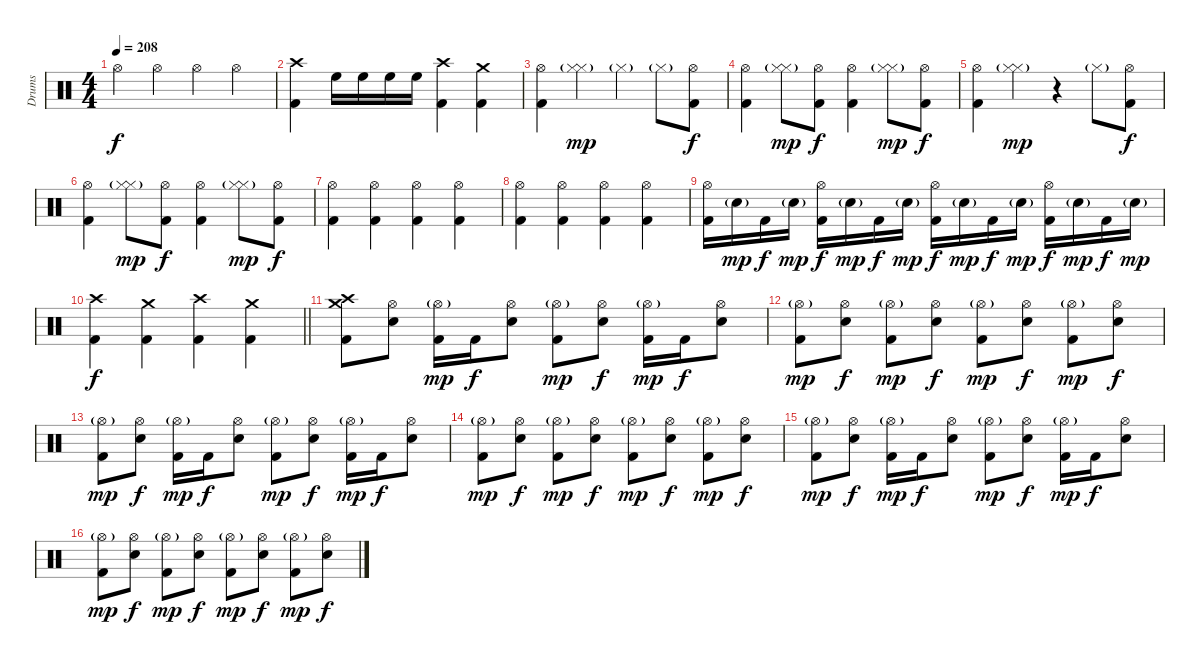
\track ("Drums" "Drums") {instrument percussion}
\staff {score}
\articulation defaults
\ts (4 4)
\tempo 208
\clef neutral
\ks c "Hi-Hat (open)".4{dy f} "Hi-Hat (open)".4 "Hi-Hat (open)".4 "Hi-Hat (open)".4
|
("Crash high (hit)" "Kick (hit) 2").4 "High Floor Tom (hit)".16 "High Floor Tom (hit)".16 "High Floor Tom (hit)".16 "High Floor Tom (hit)".16 ("Crash high (hit)" "Kick (hit) 2").4 ("Crash medium (hit)" "Kick (hit) 2").4 |
("Hi-Hat (open)" "Kick (hit) 2").4 ("Hi-Hat (closed)" "Hi-Hat (closed)"{g}).4{dy mp} "Hi-Hat (closed)"{g}.4 "Hi-Hat (closed)"{g}.8 ("Hi-Hat (open)" "Kick (hit) 2").8{dy f} |
("Hi-Hat (open)" "Kick (hit) 2").4 ("Hi-Hat (closed)" "Hi-Hat (closed)"{g}).8{dy mp} ("Hi-Hat (open)" "Kick (hit) 2").8{dy f} ("Hi-Hat (open)" "Kick (hit) 2").4 ("Hi-Hat (closed)" "Hi-Hat (closed)"{g}).8{dy mp} ("Hi-Hat (open)" "Kick (hit) 2").8{dy f} |
("Hi-Hat (open)" "Kick (hit) 2").4 ("Hi-Hat (closed)" "Hi-Hat (closed)"{g}).4{dy mp} r.4 "Hi-Hat (closed)"{g}.8 ("Hi-Hat (open)" "Kick (hit) 2").8{dy f} |
("Hi-Hat (open)" "Kick (hit) 2").4 ("Hi-Hat (closed)" "Hi-Hat (closed)"{g}).8{dy mp} ("Hi-Hat (open)" "Kick (hit) 2").8{dy f} ("Hi-Hat (open)" "Kick (hit) 2").4 ("Hi-Hat (closed)" "Hi-Hat (closed)"{g}).8{dy mp} ("Hi-Hat (open)" "Kick (hit) 2").8{dy f} |
("Hi-Hat (open)" "Kick (hit) 2").4 ("Hi-Hat (open)" "Kick (hit) 2").4 ("Hi-Hat (open)" "Kick (hit) 2").4 ("Hi-Hat (open)" "Kick (hit) 2").4 |
("Hi-Hat (open)" "Kick (hit) 2").4 ("Hi-Hat (open)" "Kick (hit) 2").4 ("Hi-Hat (open)" "Kick (hit) 2").4 ("Hi-Hat (open)" "Kick (hit) 2").4 |
("Hi-Hat (open)" "Kick (hit) 2").16 "Electric Snare (hit)"{g}.16{dy mp} "Kick (hit) 2".16{dy f} "Electric Snare (hit)"{g}.16{dy mp} ("Hi-Hat (open)" "Kick (hit) 2").16{dy f} "Electric Snare (hit)"{g}.16{dy mp} "Kick (hit) 2".16{dy f} "Electric Snare (hit)"{g}.16{dy mp} ("Hi-Hat (open)" "Kick (hit) 2").16{dy f} "Electric Snare (hit)"{g}.16{dy mp} "Kick (hit) 2".16{dy f} "Electric Snare (hit)"{g}.16{dy mp} ("Hi-Hat (open)" "Kick (hit) 2").16{dy f} "Electric Snare (hit)"{g}.16{dy mp} "Kick (hit) 2".16{dy f} "Electric Snare (hit)"{g}.16{dy mp} |
\barLineRight lightlight
("Crash high (hit)" "Kick (hit) 2").4{dy f} ("Crash medium (hit)" "Kick (hit) 2").4 ("Crash high (hit)" "Kick (hit) 2").4 ("Crash medium (hit)" "Kick (hit) 2").4 |
("Crash high (hit)" "Crash medium (hit)" "Kick (hit) 2").8 ("Hi-Hat (open)" "Electric Snare (hit)").8 ("Hi-Hat (open)"{g} "Kick (hit) 2").16{dy mp} "Kick (hit) 2".16{dy f} ("Hi-Hat (open)" "Electric Snare (hit)").8 ("Hi-Hat (open)"{g} "Kick (hit) 2").8{dy mp} ("Hi-Hat (open)" "Electric Snare (hit)").8{dy f} ("Hi-Hat (open)"{g} "Kick (hit) 2").16{dy mp} "Kick (hit) 2".16{dy f} ("Hi-Hat (open)" "Electric Snare (hit)").8 |
("Hi-Hat (open)"{g} "Kick (hit) 2").8{dy mp} ("Hi-Hat (open)" "Electric Snare (hit)").8{dy f} ("Hi-Hat (open)"{g} "Kick (hit) 2").8{dy mp} ("Hi-Hat (open)" "Electric Snare (hit)").8{dy f} ("Hi-Hat (open)"{g} "Kick (hit) 2").8{dy mp} ("Hi-Hat (open)" "Electric Snare (hit)").8{dy f} ("Hi-Hat (open)"{g} "Kick (hit) 2").8{dy mp} ("Hi-Hat (open)" "Electric Snare (hit)").8{dy f} |
("Hi-Hat (open)"{g} "Kick (hit) 2").8{dy mp} ("Hi-Hat (open)" "Electric Snare (hit)").8{dy f} ("Hi-Hat (open)"{g} "Kick (hit) 2").16{dy mp} "Kick (hit) 2".16{dy f} ("Hi-Hat (open)" "Electric Snare (hit)").8 ("Hi-Hat (open)"{g} "Kick (hit) 2").8{dy mp} ("Hi-Hat (open)" "Electric Snare (hit)").8{dy f} ("Hi-Hat (open)"{g} "Kick (hit) 2").16{dy mp} "Kick (hit) 2".16{dy f} ("Hi-Hat (open)" "Electric Snare (hit)").8 |
("Hi-Hat (open)"{g} "Kick (hit) 2").8{dy mp} ("Hi-Hat (open)" "Electric Snare (hit)").8{dy f} ("Hi-Hat (open)"{g} "Kick (hit) 2").8{dy mp} ("Hi-Hat (open)" "Electric Snare (hit)").8{dy f} ("Hi-Hat (open)"{g} "Kick (hit) 2").8{dy mp} ("Hi-Hat (open)" "Electric Snare (hit)").8{dy f} ("Hi-Hat (open)"{g} "Kick (hit) 2").8{dy mp} ("Hi-Hat (open)" "Electric Snare (hit)").8{dy f} |
("Hi-Hat (open)"{g} "Kick (hit) 2").8{dy mp} ("Hi-Hat (open)" "Electric Snare (hit)").8{dy f} ("Hi-Hat (open)"{g} "Kick (hit) 2").16{dy mp} "Kick (hit) 2".16{dy f} ("Hi-Hat (open)" "Electric Snare (hit)").8 ("Hi-Hat (open)"{g} "Kick (hit) 2").8{dy mp} ("Hi-Hat (open)" "Electric Snare (hit)").8{dy f} ("Hi-Hat (open)"{g} "Kick (hit) 2").16{dy mp} "Kick (hit) 2".16{dy f} ("Hi-Hat (open)" "Electric Snare (hit)").8 |
("Hi-Hat (open)"{g} "Kick (hit) 2").8{dy mp} ("Hi-Hat (open)" "Electric Snare (hit)").8{dy f} ("Hi-Hat (open)"{g} "Kick (hit) 2").8{dy mp} ("Hi-Hat (open)" "Electric Snare (hit)").8{dy f} ("Hi-Hat (open)"{g} "Kick (hit) 2").8{dy mp} ("Hi-Hat (open)" "Electric Snare (hit)").8{dy f} ("Hi-Hat (open)"{g} "Kick (hit) 2").8{dy mp} ("Hi-Hat (open)" "Electric Snare (hit)").8{dy f}
